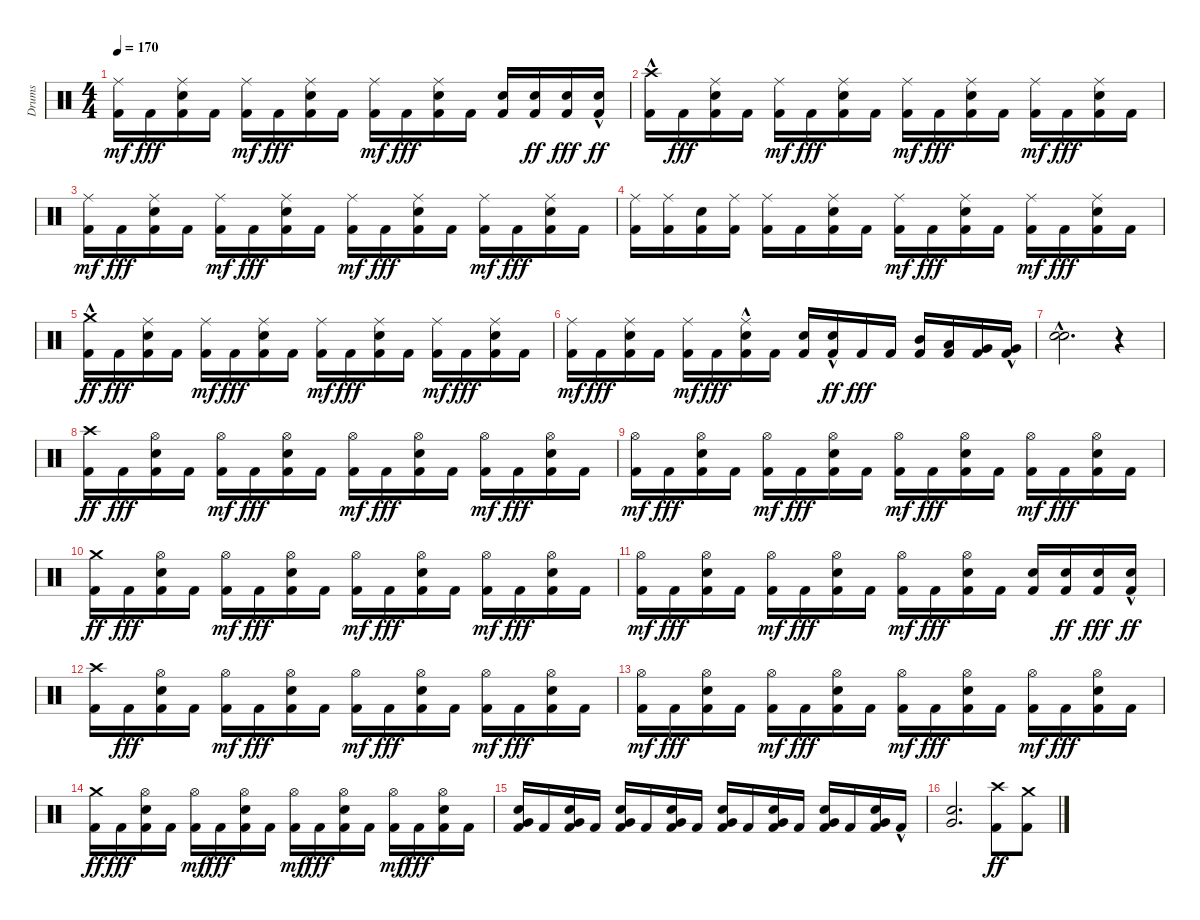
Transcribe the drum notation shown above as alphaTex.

\track ("Drums" "Drums") {instrument percussion}
\staff {score}
\articulation defaults
\ts (4 4)
\tempo 170
\clef neutral
\ks c
("Kick (hit) 2" "Ride (middle)").16{dy mf} "Kick (hit) 2".16{dy fff} ("Kick (hit) 2" "Snare (hit) 2" "Ride (middle)").16 "Kick (hit) 2".16 ("Kick (hit) 2" "Ride (middle)").16{dy mf} "Kick (hit) 2".16{dy fff} ("Kick (hit) 2" "Snare (hit) 2" "Ride (middle)").16 "Kick (hit) 2".16 ("Kick (hit) 2" "Ride (middle)").16{dy mf} "Kick (hit) 2".16{dy fff} ("Kick (hit) 2" "Snare (hit) 2" "Ride (middle)").16 "Kick (hit) 2".16 ("Kick (hit) 2" "Snare (hit) 2").16 ("Kick (hit) 2" "Snare (hit) 2").16{dy ff} ("Kick (hit) 2" "Snare (hit) 2").16{dy fff} ("Kick (hit) 2" "Snare (hit) 2"{hac}).16{dy ff} |
("Kick (hit) 2" "Crash high (hit)"{hac}).16 "Kick (hit) 2".16{dy fff} ("Kick (hit) 2" "Snare (hit) 2" "Ride (middle)").16 "Kick (hit) 2".16 ("Kick (hit) 2" "Ride (middle)").16{dy mf} "Kick (hit) 2".16{dy fff} ("Kick (hit) 2" "Snare (hit) 2" "Ride (middle)").16 "Kick (hit) 2".16 ("Kick (hit) 2" "Ride (middle)").16{dy mf} "Kick (hit) 2".16{dy fff} ("Kick (hit) 2" "Snare (hit) 2" "Ride (middle)").16 "Kick (hit) 2".16 ("Kick (hit) 2" "Ride (middle)").16{dy mf} "Kick (hit) 2".16{dy fff} ("Kick (hit) 2" "Snare (hit) 2" "Ride (middle)").16 "Kick (hit) 2".16 |
("Kick (hit) 2" "Ride (middle)").16{dy mf} "Kick (hit) 2".16{dy fff} ("Kick (hit) 2" "Snare (hit) 2" "Ride (middle)").16 "Kick (hit) 2".16 ("Kick (hit) 2" "Ride (middle)").16{dy mf} "Kick (hit) 2".16{dy fff} ("Kick (hit) 2" "Snare (hit) 2" "Ride (middle)").16 "Kick (hit) 2".16 ("Kick (hit) 2" "Ride (middle)").16{dy mf} "Kick (hit) 2".16{dy fff} ("Kick (hit) 2" "Snare (hit) 2" "Ride (middle)").16 "Kick (hit) 2".16 ("Kick (hit) 2" "Ride (middle)").16{dy mf} "Kick (hit) 2".16{dy fff} ("Kick (hit) 2" "Snare (hit) 2" "Ride (middle)").16 "Kick (hit) 2".16 |
("Kick (hit) 2" "Ride (middle)").16 ("Kick (hit) 2" "Ride (middle)").16 ("Kick (hit) 2" "Snare (hit) 2").16 ("Kick (hit) 2" "Ride (middle)").16 ("Kick (hit) 2" "Ride (middle)").16 "Kick (hit) 2".16 ("Kick (hit) 2" "Snare (hit) 2" "Ride (middle)").16 "Kick (hit) 2".16 ("Kick (hit) 2" "Ride (middle)").16{dy mf} "Kick (hit) 2".16{dy fff} ("Kick (hit) 2" "Snare (hit) 2" "Ride (middle)").16 "Kick (hit) 2".16 ("Kick (hit) 2" "Ride (middle)").16{dy mf} "Kick (hit) 2".16{dy fff} ("Kick (hit) 2" "Snare (hit) 2" "Ride (middle)").16 "Kick (hit) 2".16 |
("Kick (hit) 2" "Crash medium (hit)"{hac}).16{dy ff} "Kick (hit) 2".16{dy fff} ("Kick (hit) 2" "Snare (hit) 2" "Ride (middle)").16 "Kick (hit) 2".16 ("Kick (hit) 2" "Ride (middle)").16{dy mf} "Kick (hit) 2".16{dy fff} ("Kick (hit) 2" "Snare (hit) 2" "Ride (middle)").16 "Kick (hit) 2".16 ("Kick (hit) 2" "Ride (middle)").16{dy mf} "Kick (hit) 2".16{dy fff} ("Kick (hit) 2" "Snare (hit) 2" "Ride (middle)").16 "Kick (hit) 2".16 ("Kick (hit) 2" "Ride (middle)").16{dy mf} "Kick (hit) 2".16{dy fff} ("Kick (hit) 2" "Snare (hit) 2" "Ride (middle)").16 "Kick (hit) 2".16 |
("Kick (hit) 2" "Ride (middle)").16{dy mf} "Kick (hit) 2".16{dy fff} ("Kick (hit) 2" "Snare (hit) 2" "Ride (middle)").16 "Kick (hit) 2".16 ("Kick (hit) 2" "Ride (middle)").16{dy mf} "Kick (hit) 2".16{dy fff} ("Kick (hit) 2" "Snare (hit) 2" "Ride (middle)"{hac}).16 "Kick (hit) 2".16 ("Kick (hit) 2" "Snare (hit) 2").16 ("Kick (hit) 2" "Snare (hit) 2"{hac}).16{dy ff} "Kick (hit) 2".16{dy fff} "Kick (hit) 2".16 ("Kick (hit) 2" "Mid Tom (hit)").16 ("Kick (hit) 2" "Low Tom (hit)").16 ("Kick (hit) 2" "Very Low Tom (hit)").16 ("Kick (hit) 2"{hac} "Very Low Tom (hit)").16 |
("Snare (hit) 2" "Snare (hit) 2"{hac}).2{d} r.4 |
("Kick (hit) 2" "Crash high (hit)").16{dy ff} "Kick (hit) 2".16{dy fff} ("Kick (hit) 2" "Snare (hit) 2" "Hi-Hat (open)").16 "Kick (hit) 2".16 ("Kick (hit) 2" "Hi-Hat (open)").16{dy mf} "Kick (hit) 2".16{dy fff} ("Kick (hit) 2" "Snare (hit) 2" "Hi-Hat (open)").16 "Kick (hit) 2".16 ("Kick (hit) 2" "Hi-Hat (open)").16{dy mf} "Kick (hit) 2".16{dy fff} ("Kick (hit) 2" "Snare (hit) 2" "Hi-Hat (open)").16 "Kick (hit) 2".16 ("Kick (hit) 2" "Hi-Hat (open)").16{dy mf} "Kick (hit) 2".16{dy fff} ("Kick (hit) 2" "Snare (hit) 2" "Hi-Hat (open)").16 "Kick (hit) 2".16 |
("Kick (hit) 2" "Hi-Hat (open)").16{dy mf} "Kick (hit) 2".16{dy fff} ("Kick (hit) 2" "Snare (hit) 2" "Hi-Hat (open)").16 "Kick (hit) 2".16 ("Kick (hit) 2" "Hi-Hat (open)").16{dy mf} "Kick (hit) 2".16{dy fff} ("Kick (hit) 2" "Snare (hit) 2" "Hi-Hat (open)").16 "Kick (hit) 2".16 ("Kick (hit) 2" "Hi-Hat (open)").16{dy mf} "Kick (hit) 2".16{dy fff} ("Kick (hit) 2" "Snare (hit) 2" "Hi-Hat (open)").16 "Kick (hit) 2".16 ("Kick (hit) 2" "Hi-Hat (open)").16{dy mf} "Kick (hit) 2".16{dy fff} ("Kick (hit) 2" "Snare (hit) 2" "Hi-Hat (open)").16 "Kick (hit) 2".16 |
("Kick (hit) 2" "Crash medium (hit)").16{dy ff} "Kick (hit) 2".16{dy fff} ("Kick (hit) 2" "Snare (hit) 2" "Hi-Hat (open)").16 "Kick (hit) 2".16 ("Kick (hit) 2" "Hi-Hat (open)").16{dy mf} "Kick (hit) 2".16{dy fff} ("Kick (hit) 2" "Snare (hit) 2" "Hi-Hat (open)").16 "Kick (hit) 2".16 ("Kick (hit) 2" "Hi-Hat (open)").16{dy mf} "Kick (hit) 2".16{dy fff} ("Kick (hit) 2" "Snare (hit) 2" "Hi-Hat (open)").16 "Kick (hit) 2".16 ("Kick (hit) 2" "Hi-Hat (open)").16{dy mf} "Kick (hit) 2".16{dy fff} ("Kick (hit) 2" "Snare (hit) 2" "Hi-Hat (open)").16 "Kick (hit) 2".16 |
("Kick (hit) 2" "Hi-Hat (open)").16{dy mf} "Kick (hit) 2".16{dy fff} ("Kick (hit) 2" "Snare (hit) 2" "Hi-Hat (open)").16 "Kick (hit) 2".16 ("Kick (hit) 2" "Hi-Hat (open)").16{dy mf} "Kick (hit) 2".16{dy fff} ("Kick (hit) 2" "Snare (hit) 2" "Hi-Hat (open)").16 "Kick (hit) 2".16 ("Kick (hit) 2" "Hi-Hat (open)").16{dy mf} "Kick (hit) 2".16{dy fff} ("Kick (hit) 2" "Snare (hit) 2" "Hi-Hat (open)").16 "Kick (hit) 2".16 ("Kick (hit) 2" "Snare (hit) 2").16 ("Kick (hit) 2" "Snare (hit) 2").16{dy ff} ("Kick (hit) 2" "Snare (hit) 2").16{dy fff} ("Kick (hit) 2" "Snare (hit) 2"{hac}).16{dy ff} |
("Kick (hit) 2" "Crash high (hit)").16 "Kick (hit) 2".16{dy fff} ("Kick (hit) 2" "Snare (hit) 2" "Hi-Hat (open)").16 "Kick (hit) 2".16 ("Kick (hit) 2" "Hi-Hat (open)").16{dy mf} "Kick (hit) 2".16{dy fff} ("Kick (hit) 2" "Snare (hit) 2" "Hi-Hat (open)").16 "Kick (hit) 2".16 ("Kick (hit) 2" "Hi-Hat (open)").16{dy mf} "Kick (hit) 2".16{dy fff} ("Kick (hit) 2" "Snare (hit) 2" "Hi-Hat (open)").16 "Kick (hit) 2".16 ("Kick (hit) 2" "Hi-Hat (open)").16{dy mf} "Kick (hit) 2".16{dy fff} ("Kick (hit) 2" "Snare (hit) 2" "Hi-Hat (open)").16 "Kick (hit) 2".16 |
("Kick (hit) 2" "Hi-Hat (open)").16{dy mf} "Kick (hit) 2".16{dy fff} ("Kick (hit) 2" "Snare (hit) 2" "Hi-Hat (open)").16 "Kick (hit) 2".16 ("Kick (hit) 2" "Hi-Hat (open)").16{dy mf} "Kick (hit) 2".16{dy fff} ("Kick (hit) 2" "Snare (hit) 2" "Hi-Hat (open)").16 "Kick (hit) 2".16 ("Kick (hit) 2" "Hi-Hat (open)").16{dy mf} "Kick (hit) 2".16{dy fff} ("Kick (hit) 2" "Snare (hit) 2" "Hi-Hat (open)").16 "Kick (hit) 2".16 ("Kick (hit) 2" "Hi-Hat (open)").16{dy mf} "Kick (hit) 2".16{dy fff} ("Kick (hit) 2" "Snare (hit) 2" "Hi-Hat (open)").16 "Kick (hit) 2".16 |
("Kick (hit) 2" "Crash medium (hit)").16{dy ff} "Kick (hit) 2".16{dy fff} ("Kick (hit) 2" "Snare (hit) 2" "Hi-Hat (open)").16 "Kick (hit) 2".16 ("Kick (hit) 2" "Hi-Hat (open)").16{dy mf} "Kick (hit) 2".16{dy fff} ("Kick (hit) 2" "Snare (hit) 2" "Hi-Hat (open)").16 "Kick (hit) 2".16 ("Kick (hit) 2" "Hi-Hat (open)").16{dy mf} "Kick (hit) 2".16{dy fff} ("Kick (hit) 2" "Snare (hit) 2" "Hi-Hat (open)").16 "Kick (hit) 2".16 ("Kick (hit) 2" "Hi-Hat (open)").16{dy mf} "Kick (hit) 2".16{dy fff} ("Kick (hit) 2" "Snare (hit) 2" "Hi-Hat (open)").16 "Kick (hit) 2".16 |
("Kick (hit) 2" "Snare (hit) 2" "Very Low Tom (hit)").16 "Kick (hit) 2".16 ("Kick (hit) 2" "Snare (hit) 2" "Very Low Tom (hit)").16 "Kick (hit) 2".16 ("Kick (hit) 2" "Snare (hit) 2" "Very Low Tom (hit)").16 "Kick (hit) 2".16 ("Kick (hit) 2" "Snare (hit) 2" "Very Low Tom (hit)").16 "Kick (hit) 2".16 ("Kick (hit) 2" "Snare (hit) 2" "Very Low Tom (hit)").16 "Kick (hit) 2".16 ("Kick (hit) 2" "Snare (hit) 2" "Very Low Tom (hit)").16 "Kick (hit) 2".16 ("Kick (hit) 2" "Snare (hit) 2" "Very Low Tom (hit)").16 "Kick (hit) 2".16 ("Kick (hit) 2" "Snare (hit) 2" "Very Low Tom (hit)").16 "Kick (hit) 2"{hac}.16 |
("Snare (hit) 2" "Very Low Tom (hit)").2{d} ("Kick (hit) 2" "Crash high (hit)").8{dy ff} ("Kick (hit) 2" "Crash medium (hit)").8
